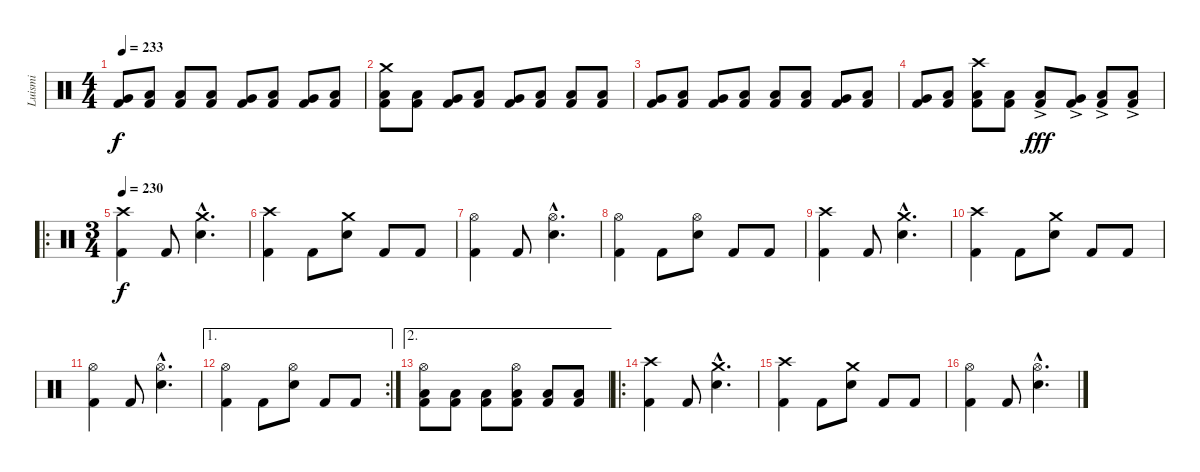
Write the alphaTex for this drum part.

\track ("Luismi" "Luismi") {instrument percussion}
\staff {score}
\articulation defaults
\ts (4 4)
\tempo 233
\clef neutral
\ks c
("Very Low Tom (hit)" "Kick (hit) 2").8{dy f} ("Low Floor Tom (hit)" "Kick (hit) 2").8 ("Low Tom (hit)" "Kick (hit) 2").8 ("Low Floor Tom (hit)" "Kick (hit) 2").8 ("Very Low Tom (hit)" "Kick (hit) 2").8 ("Low Floor Tom (hit)" "Kick (hit) 2").8 ("Very Low Tom (hit)" "Kick (hit) 2").8 ("Low Floor Tom (hit)" "Kick (hit) 2").8 |
("Crash medium (hit)" "Low Tom (hit)" "Kick (hit) 2").8 ("Low Floor Tom (hit)" "Kick (hit) 2").8 ("Very Low Tom (hit)" "Kick (hit) 2").8 ("Low Floor Tom (hit)" "Kick (hit) 2").8 ("Very Low Tom (hit)" "Kick (hit) 2").8 ("Low Floor Tom (hit)" "Kick (hit) 2").8 ("Low Tom (hit)" "Kick (hit) 2").8 ("Low Floor Tom (hit)" "Kick (hit) 2").8 |
("Very Low Tom (hit)" "Kick (hit) 2").8 ("Low Floor Tom (hit)" "Kick (hit) 2").8 ("Very Low Tom (hit)" "Kick (hit) 2").8 ("Low Floor Tom (hit)" "Kick (hit) 2").8 ("Low Tom (hit)" "Kick (hit) 2").8 ("Low Floor Tom (hit)" "Kick (hit) 2").8 ("Very Low Tom (hit)" "Kick (hit) 2").8 ("Low Floor Tom (hit)" "Kick (hit) 2").8 |
("Very Low Tom (hit)" "Kick (hit) 2").8 ("Low Floor Tom (hit)" "Kick (hit) 2").8 ("Crash high (hit)" "Low Tom (hit)" "Kick (hit) 2").8 ("Low Floor Tom (hit)" "Kick (hit) 2").8 ("Low Tom (hit)"{ac} "Kick (hit) 2"{ac}).8{dy fff} ("Very Low Tom (hit)"{ac} "Kick (hit) 2"{ac}).8 ("Low Tom (hit)"{ac} "Kick (hit) 2"{ac}).8 ("Low Floor Tom (hit)"{ac} "Kick (hit) 2"{ac}).8 |
\ro
\ts (3 4)
\section ("" "")
\tempo 230
("Crash high (hit)" "Kick (hit) 2").4{dy f} "Kick (hit) 2".8 ("Crash medium (hit)"{hac} "Electric Snare (hit)"{hac}).4{d} |
("Crash high (hit)" "Kick (hit) 2").4 "Kick (hit) 2".8 ("Crash medium (hit)" "Electric Snare (hit)").8 "Kick (hit) 2".8 "Kick (hit) 2".8 |
("Hi-Hat (open)" "Kick (hit) 2").4 "Kick (hit) 2".8 ("Hi-Hat (open)"{hac} "Electric Snare (hit)"{hac}).4{d} |
("Hi-Hat (open)" "Kick (hit) 2").4 "Kick (hit) 2".8 ("Hi-Hat (open)" "Electric Snare (hit)").8 "Kick (hit) 2".8 "Kick (hit) 2".8 |
("Crash high (hit)" "Kick (hit) 2").4 "Kick (hit) 2".8 ("Crash medium (hit)"{hac} "Electric Snare (hit)"{hac}).4{d} |
("Crash high (hit)" "Kick (hit) 2").4 "Kick (hit) 2".8 ("Crash medium (hit)" "Electric Snare (hit)").8 "Kick (hit) 2".8 "Kick (hit) 2".8 |
("Hi-Hat (open)" "Kick (hit) 2").4 "Kick (hit) 2".8 ("Hi-Hat (open)"{hac} "Electric Snare (hit)"{hac}).4{d} |
\ae 1
\rc 2
("Hi-Hat (open)" "Kick (hit) 2").4 "Kick (hit) 2".8 ("Hi-Hat (open)" "Electric Snare (hit)").8 "Kick (hit) 2".8 "Kick (hit) 2".8 |
\ae 2
("Hi-Hat (open)" "Low Tom (hit)" "Kick (hit) 2").8 ("Low Tom (hit)" "Kick (hit) 2").8 ("Low Tom (hit)" "Kick (hit) 2").8 ("Hi-Hat (open)" "Low Floor Tom (hit)" "Kick (hit) 2").8 ("Low Floor Tom (hit)" "Kick (hit) 2").8 ("Low Floor Tom (hit)" "Kick (hit) 2").8 |
\ro
\section ("" "")
("Crash high (hit)" "Kick (hit) 2").4 "Kick (hit) 2".8 ("Crash medium (hit)"{hac} "Electric Snare (hit)"{hac}).4{d} |
("Crash high (hit)" "Kick (hit) 2").4 "Kick (hit) 2".8 ("Crash medium (hit)" "Electric Snare (hit)").8 "Kick (hit) 2".8 "Kick (hit) 2".8 |
("Hi-Hat (open)" "Kick (hit) 2").4 "Kick (hit) 2".8 ("Hi-Hat (open)"{hac} "Electric Snare (hit)"{hac}).4{d}
